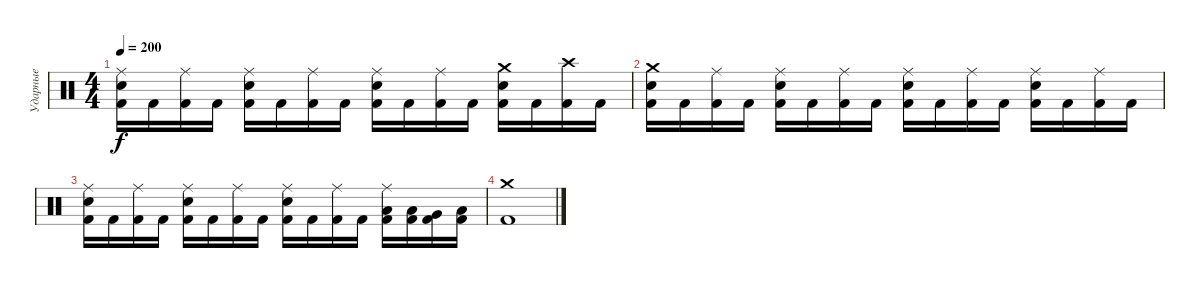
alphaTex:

\track ("Ударные" "Ударные") {instrument percussion}
\staff {score}
\articulation defaults
\ts (4 4)
\tempo 200
\clef neutral
\ks c
("Ride (middle)" "Snare (hit) 2" "Kick (hit) 2").16{dy f} "Kick (hit) 2".16 ("Ride (middle)" "Kick (hit) 2").16 "Kick (hit) 2".16 ("Ride (middle)" "Snare (hit) 2" "Kick (hit) 2").16 "Kick (hit) 2".16 ("Ride (middle)" "Kick (hit) 2").16 "Kick (hit) 2".16 ("Ride (middle)" "Snare (hit) 2" "Kick (hit) 2").16 "Kick (hit) 2".16 ("Ride (middle)" "Kick (hit) 2").16 "Kick (hit) 2".16 ("Crash medium (hit)" "Snare (hit) 2" "Kick (hit) 2").16 "Kick (hit) 2".16 ("Crash high (hit)" "Kick (hit) 2").16 "Kick (hit) 2".16 |
("Crash medium (hit)" "Snare (hit) 2" "Kick (hit) 2").16 "Kick (hit) 2".16 ("Ride (middle)" "Kick (hit) 2").16 "Kick (hit) 2".16 ("Ride (middle)" "Snare (hit) 2" "Kick (hit) 2").16 "Kick (hit) 2".16 ("Ride (middle)" "Kick (hit) 2").16 "Kick (hit) 2".16 ("Ride (middle)" "Snare (hit) 2" "Kick (hit) 2").16 "Kick (hit) 2".16 ("Ride (middle)" "Kick (hit) 2").16 "Kick (hit) 2".16 ("Ride (middle)" "Snare (hit) 2" "Kick (hit) 2").16 "Kick (hit) 2".16 ("Ride (middle)" "Kick (hit) 2").16 "Kick (hit) 2".16 |
("Ride (middle)" "Snare (hit) 2" "Kick (hit) 2").16 "Kick (hit) 2".16 ("Ride (middle)" "Kick (hit) 2").16 "Kick (hit) 2".16 ("Ride (middle)" "Snare (hit) 2" "Kick (hit) 2").16 "Kick (hit) 2".16 ("Ride (middle)" "Kick (hit) 2").16 "Kick (hit) 2".16 ("Ride (middle)" "Snare (hit) 2" "Kick (hit) 2").16 "Kick (hit) 2".16 ("Ride (middle)" "Kick (hit) 2").16 "Kick (hit) 2".16 ("Ride (middle)" "Low Tom (hit)" "Kick (hit) 2").16 ("Low Tom (hit)" "Kick (hit) 2").16 ("Very Low Tom (hit)" "Kick (hit) 2").16 ("Low Floor Tom (hit)" "Kick (hit) 2").16 |
("Crash medium (hit)" "Kick (hit) 2").1
